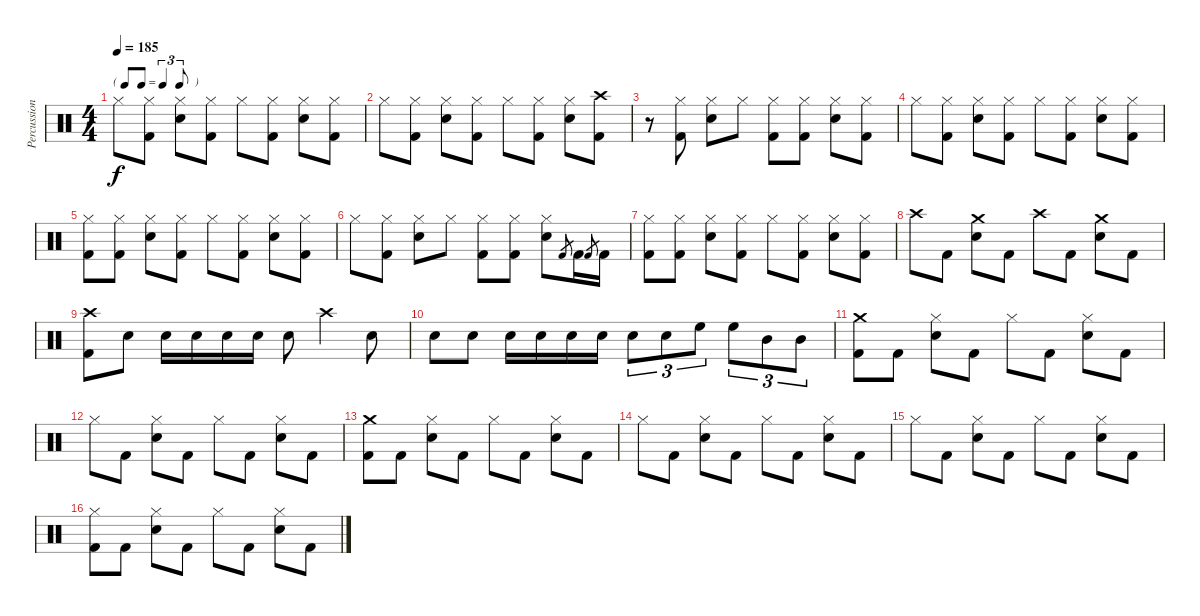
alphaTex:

\track ("Percussion" "Percussion") {instrument percussion}
\staff {score}
\articulation defaults
\ts (4 4)
\tf triplet8th
\tempo 185
\clef neutral
\ks c "Hi-Hat (closed)".8{dy f}
("Kick (hit) 2" "Hi-Hat (closed)").8 ("Snare (hit) 2" "Hi-Hat (closed)").8 ("Kick (hit) 2" "Hi-Hat (closed)").8 "Hi-Hat (closed)".8 ("Kick (hit) 2" "Hi-Hat (closed)").8 ("Snare (hit) 2" "Hi-Hat (closed)").8 ("Kick (hit) 2" "Hi-Hat (closed)").8 |
"Hi-Hat (closed)".8 ("Kick (hit) 2" "Hi-Hat (closed)").8 ("Snare (hit) 2" "Hi-Hat (closed)").8 ("Kick (hit) 2" "Hi-Hat (closed)").8 "Hi-Hat (closed)".8 ("Kick (hit) 2" "Hi-Hat (closed)").8 ("Snare (hit) 2" "Hi-Hat (closed)").8 ("Kick (hit) 2" "Crash high (hit)").8 |
r.8 ("Kick (hit) 2" "Hi-Hat (closed)").8 ("Snare (hit) 2" "Hi-Hat (closed)").8 "Hi-Hat (closed)".8 ("Kick (hit) 2" "Hi-Hat (closed)").8 ("Kick (hit) 2" "Hi-Hat (closed)").8 ("Snare (hit) 2" "Hi-Hat (closed)").8 ("Kick (hit) 2" "Hi-Hat (closed)").8 |
"Hi-Hat (closed)".8 ("Kick (hit) 2" "Hi-Hat (closed)").8 ("Snare (hit) 2" "Hi-Hat (closed)").8 ("Kick (hit) 2" "Hi-Hat (closed)").8 "Hi-Hat (closed)".8 ("Kick (hit) 2" "Hi-Hat (closed)").8 ("Snare (hit) 2" "Hi-Hat (closed)").8 ("Kick (hit) 2" "Hi-Hat (closed)").8 |
("Kick (hit) 2" "Hi-Hat (closed)").8 ("Kick (hit) 2" "Hi-Hat (closed)").8 ("Snare (hit) 2" "Hi-Hat (closed)").8 ("Kick (hit) 2" "Hi-Hat (closed)").8 "Hi-Hat (closed)".8 ("Kick (hit) 2" "Hi-Hat (closed)").8 ("Snare (hit) 2" "Hi-Hat (closed)").8 ("Kick (hit) 2" "Hi-Hat (closed)").8 |
"Hi-Hat (closed)".8 ("Kick (hit) 2" "Hi-Hat (closed)").8 ("Snare (hit) 2" "Hi-Hat (closed)").8 "Hi-Hat (closed)".8 ("Kick (hit) 2" "Hi-Hat (closed)").8 ("Kick (hit) 2" "Hi-Hat (closed)").8 ("Snare (hit) 2" "Hi-Hat (closed)").8 "Kick (hit) 2".8{gr} "Kick (hit) 2".16 "Kick (hit) 2".8{gr} "Kick (hit) 2".16 |
("Kick (hit) 2" "Hi-Hat (closed)").8 ("Kick (hit) 2" "Hi-Hat (closed)").8 ("Snare (hit) 2" "Hi-Hat (closed)").8 ("Kick (hit) 2" "Hi-Hat (closed)").8 "Hi-Hat (closed)".8 ("Kick (hit) 2" "Hi-Hat (closed)").8 ("Snare (hit) 2" "Hi-Hat (closed)").8 ("Kick (hit) 2" "Hi-Hat (closed)").8 |
"Crash high (hit)".8 "Kick (hit) 2".8 ("Snare (hit) 2" "Crash medium (hit)").8 "Kick (hit) 2".8 "Crash high (hit)".8 "Kick (hit) 2".8 ("Snare (hit) 2" "Crash medium (hit)").8 "Kick (hit) 2".8 |
("Kick (hit) 2" "Crash high (hit)").8 "Snare (hit) 2".8 "Snare (hit) 2".16 "Snare (hit) 2".16 "Snare (hit) 2".16 "Snare (hit) 2".16 "Snare (hit) 2".8 "Crash high (hit)".4 "Snare (hit) 2".8 |
"Snare (hit) 2".8 "Snare (hit) 2".8 "Snare (hit) 2".16 "Snare (hit) 2".16 "Snare (hit) 2".16 "Snare (hit) 2".16 "Snare (hit) 2".8{tu (3 2)} "Snare (hit) 2".8{tu (3 2)} "High Floor Tom (hit)".8{tu (3 2)} "High Floor Tom (hit)".8{tu (3 2)} "Mid Tom (hit)".8{tu (3 2)} "Mid Tom (hit)".8{tu (3 2)} |
("Kick (hit) 2" "Crash medium (hit)").8 "Kick (hit) 2".8 ("Snare (hit) 2" "Hi-Hat (closed)").8 "Kick (hit) 2".8 "Hi-Hat (closed)".8 "Kick (hit) 2".8 ("Snare (hit) 2" "Hi-Hat (closed)").8 "Kick (hit) 2".8 |
"Hi-Hat (closed)".8 "Kick (hit) 2".8 ("Snare (hit) 2" "Hi-Hat (closed)").8 "Kick (hit) 2".8 "Hi-Hat (closed)".8 "Kick (hit) 2".8 ("Snare (hit) 2" "Hi-Hat (closed)").8 "Kick (hit) 2".8 |
("Kick (hit) 2" "Crash medium (hit)").8 "Kick (hit) 2".8 ("Snare (hit) 2" "Hi-Hat (closed)").8 "Kick (hit) 2".8 "Hi-Hat (closed)".8 "Kick (hit) 2".8 ("Snare (hit) 2" "Hi-Hat (closed)").8 "Kick (hit) 2".8 |
"Hi-Hat (closed)".8 "Kick (hit) 2".8 ("Snare (hit) 2" "Hi-Hat (closed)").8 "Kick (hit) 2".8 "Hi-Hat (closed)".8 "Kick (hit) 2".8 ("Snare (hit) 2" "Hi-Hat (closed)").8 "Kick (hit) 2".8 |
"Hi-Hat (closed)".8 "Kick (hit) 2".8 ("Snare (hit) 2" "Hi-Hat (closed)").8 "Kick (hit) 2".8 "Hi-Hat (closed)".8 "Kick (hit) 2".8 ("Snare (hit) 2" "Hi-Hat (closed)").8 "Kick (hit) 2".8 |
("Kick (hit) 2" "Hi-Hat (closed)").8 "Kick (hit) 2".8 ("Snare (hit) 2" "Hi-Hat (closed)").8 "Kick (hit) 2".8 "Hi-Hat (closed)".8 "Kick (hit) 2".8 ("Snare (hit) 2" "Hi-Hat (closed)").8 "Kick (hit) 2".8
